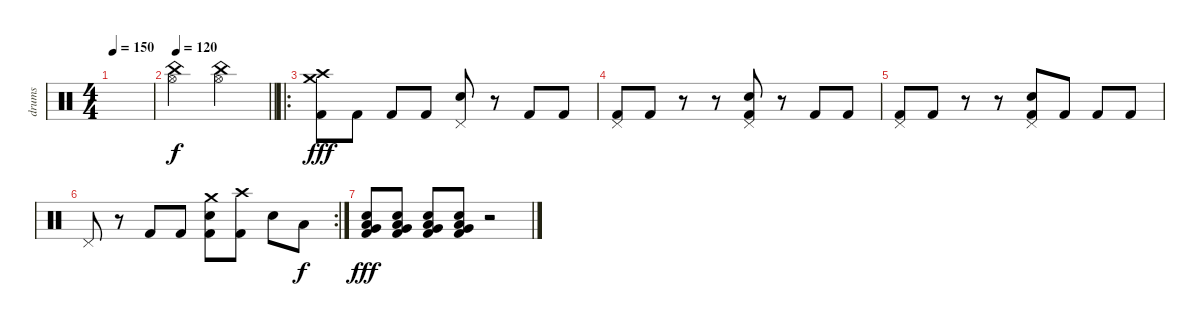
\track ("drums" "drums") {instrument percussion}
\staff {score}
\articulation defaults
\ts (4 4)
\tempo 150
\clef neutral
\ks c
|
\tempo 120
\barLineRight lightlight
("Hi-Hat (open)" "China (hit)").2{dy f} ("Hi-Hat (open)" "China (hit)").2 |
\ro
\section ("" "")
("Crash high (hit)" "Crash medium (hit)" "Kick (hit) 2").8{dy fff} "Kick (hit) 2".8 "Kick (hit) 2".8 "Kick (hit) 2".8 ("Pedal Hi-Hat (hit)" "Electric Snare (hit)").8 r.8 "Kick (hit) 2".8 "Kick (hit) 2".8 |
("Pedal Hi-Hat (hit)" "Kick (hit) 2").8 "Kick (hit) 2".8 r.8 r.8 ("Pedal Hi-Hat (hit)" "Electric Snare (hit)" "Kick (hit) 2").8 r.8 "Kick (hit) 2".8 "Kick (hit) 2".8 |
("Pedal Hi-Hat (hit)" "Kick (hit) 2").8 "Kick (hit) 2".8 r.8 r.8 ("Pedal Hi-Hat (hit)" "Electric Snare (hit)" "Kick (hit) 2").8 "Kick (hit) 2".8 "Kick (hit) 2".8 "Kick (hit) 2".8 |
\rc 2 "Pedal Hi-Hat (hit)".8
r.8 "Kick (hit) 2".8 "Kick (hit) 2".8 ("Crash medium (hit)" "Electric Snare (hit)" "Kick (hit) 2").8 ("Crash high (hit)" "Kick (hit) 2").8 "Electric Snare (hit)".8 "Low Floor Tom (hit)".8{dy f} |
("Very Low Tom (hit)" "Low Floor Tom (hit)" "Electric Snare (hit)" "Kick (hit) 2").8{dy fff} ("Very Low Tom (hit)" "Low Floor Tom (hit)" "Electric Snare (hit)" "Kick (hit) 2").8 ("Very Low Tom (hit)" "Low Floor Tom (hit)" "Electric Snare (hit)" "Kick (hit) 2").8 ("Very Low Tom (hit)" "Low Floor Tom (hit)" "Electric Snare (hit)" "Kick (hit) 2").8 r.2
